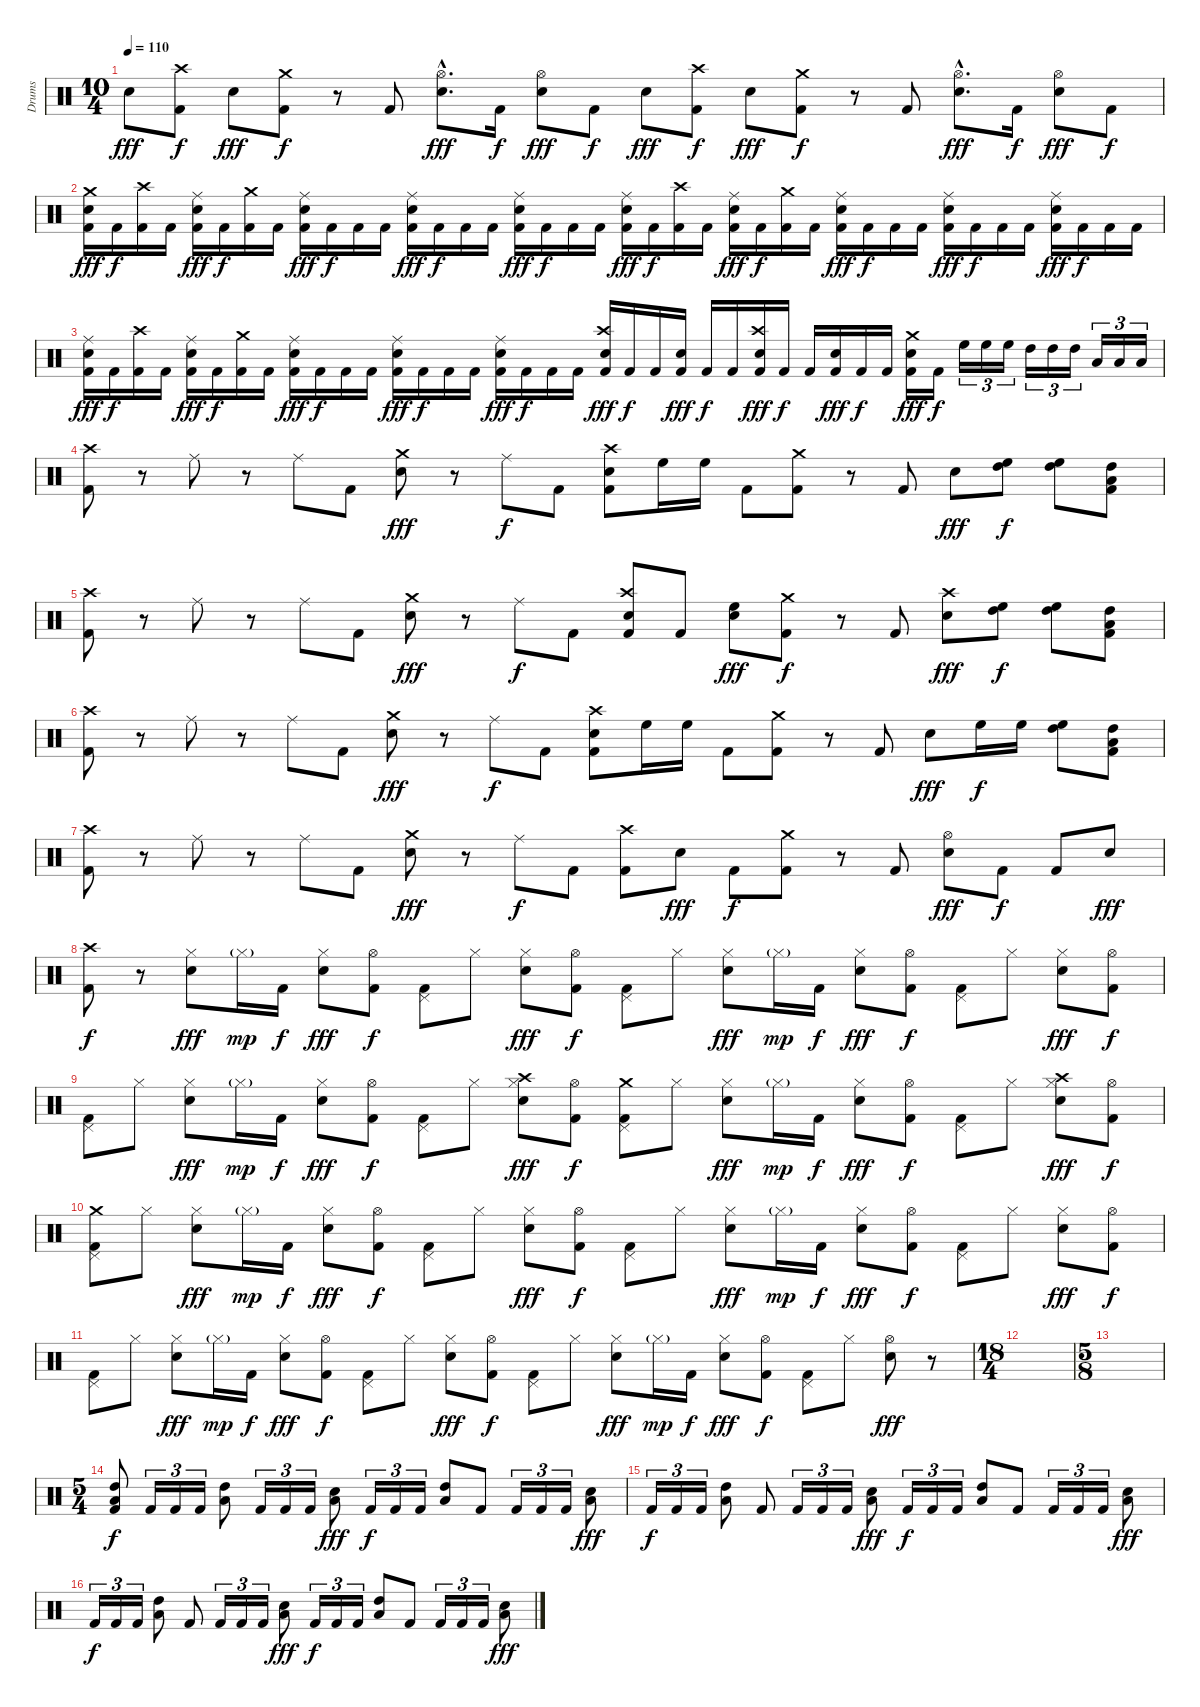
\track ("Drums" "Drums") {instrument percussion}
\staff {score}
\articulation defaults
\ts (10 4)
\tempo 110
\clef neutral
\ks c "Electric Snare (hit)".8{dy fff}
("Crash high (hit)" "Kick (hit) 2").8{dy f} "Electric Snare (hit)".8{dy fff} ("Crash medium (hit)" "Kick (hit) 2").8{dy f} r.8 "Kick (hit) 2".8 ("Hi-Hat (open)"{hac} "Electric Snare (hit)"{hac}).8{d dy fff} "Kick (hit) 2".16{dy f} ("Hi-Hat (open)" "Electric Snare (hit)").8{dy fff} "Kick (hit) 2".8{dy f} "Electric Snare (hit)".8{dy fff} ("Crash high (hit)" "Kick (hit) 2").8{dy f} "Electric Snare (hit)".8{dy fff} ("Crash medium (hit)" "Kick (hit) 2").8{dy f} r.8 "Kick (hit) 2".8 ("Hi-Hat (open)"{hac} "Electric Snare (hit)"{hac}).8{d dy fff} "Kick (hit) 2".16{dy f} ("Hi-Hat (open)" "Electric Snare (hit)").8{dy fff} "Kick (hit) 2".8{dy f} |
("Crash medium (hit)" "Electric Snare (hit)" "Kick (hit) 2").16{dy fff} "Kick (hit) 2".16{dy f} ("Crash high (hit)" "Kick (hit) 2").16 "Kick (hit) 2".16 ("Ride (middle)" "Electric Snare (hit)" "Kick (hit) 2").16{dy fff} "Kick (hit) 2".16{dy f} ("Crash medium (hit)" "Kick (hit) 2").16 "Kick (hit) 2".16 ("Ride (middle)" "Electric Snare (hit)" "Kick (hit) 2").16{dy fff} "Kick (hit) 2".16{dy f} "Kick (hit) 2".16 "Kick (hit) 2".16 ("Ride (middle)" "Electric Snare (hit)" "Kick (hit) 2").16{dy fff} "Kick (hit) 2".16{dy f} "Kick (hit) 2".16 "Kick (hit) 2".16 ("Ride (middle)" "Electric Snare (hit)" "Kick (hit) 2").16{dy fff} "Kick (hit) 2".16{dy f} "Kick (hit) 2".16 "Kick (hit) 2".16 ("Ride (middle)" "Electric Snare (hit)" "Kick (hit) 2").16{dy fff} "Kick (hit) 2".16{dy f} ("Crash high (hit)" "Kick (hit) 2").16 "Kick (hit) 2".16 ("Ride (middle)" "Electric Snare (hit)" "Kick (hit) 2").16{dy fff} "Kick (hit) 2".16{dy f} ("Crash medium (hit)" "Kick (hit) 2").16 "Kick (hit) 2".16 ("Ride (middle)" "Electric Snare (hit)" "Kick (hit) 2").16{dy fff} "Kick (hit) 2".16{dy f} "Kick (hit) 2".16 "Kick (hit) 2".16 ("Ride (middle)" "Electric Snare (hit)" "Kick (hit) 2").16{dy fff} "Kick (hit) 2".16{dy f} "Kick (hit) 2".16 "Kick (hit) 2".16 ("Ride (middle)" "Electric Snare (hit)" "Kick (hit) 2").16{dy fff} "Kick (hit) 2".16{dy f} "Kick (hit) 2".16 "Kick (hit) 2".16 |
("Ride (middle)" "Electric Snare (hit)" "Kick (hit) 2").16{dy fff} "Kick (hit) 2".16{dy f} ("Crash high (hit)" "Kick (hit) 2").16 "Kick (hit) 2".16 ("Ride (middle)" "Electric Snare (hit)" "Kick (hit) 2").16{dy fff} "Kick (hit) 2".16{dy f} ("Crash medium (hit)" "Kick (hit) 2").16 "Kick (hit) 2".16 ("Ride (middle)" "Electric Snare (hit)" "Kick (hit) 2").16{dy fff} "Kick (hit) 2".16{dy f} "Kick (hit) 2".16 "Kick (hit) 2".16 ("Ride (middle)" "Electric Snare (hit)" "Kick (hit) 2").16{dy fff} "Kick (hit) 2".16{dy f} "Kick (hit) 2".16 "Kick (hit) 2".16 ("Ride (middle)" "Electric Snare (hit)" "Kick (hit) 2").16{dy fff} "Kick (hit) 2".16{dy f} "Kick (hit) 2".16 "Kick (hit) 2".16 ("Crash high (hit)" "Electric Snare (hit)" "Kick (hit) 2").16{dy fff} "Kick (hit) 2".16{dy f} "Kick (hit) 2".16 ("Electric Snare (hit)" "Kick (hit) 2").16{dy fff} "Kick (hit) 2".16{dy f} "Kick (hit) 2".16 ("Crash high (hit)" "Electric Snare (hit)" "Kick (hit) 2").16{dy fff} "Kick (hit) 2".16{dy f} "Kick (hit) 2".16 ("Electric Snare (hit)" "Kick (hit) 2").16{dy fff} "Kick (hit) 2".16{dy f} "Kick (hit) 2".16 ("Crash medium (hit)" "Electric Snare (hit)" "Kick (hit) 2").16{dy fff} "Kick (hit) 2".16{dy f} "High Floor Tom (hit)".16{tu (3 2)} "High Floor Tom (hit)".16{tu (3 2)} "High Floor Tom (hit)".16{tu (3 2)} "High Tom (hit)".16{tu (3 2)} "High Tom (hit)".16{tu (3 2)} "High Tom (hit)".16{tu (3 2)} "Low Tom (hit)".16{tu (3 2)} "Low Tom (hit)".16{tu (3 2)} "Low Tom (hit)".16{tu (3 2)} |
("Crash high (hit)" "Kick (hit) 2").8 r.8 "Ride (middle)".8 r.8 "Ride (middle)".8 "Kick (hit) 2".8 ("Crash medium (hit)" "Electric Snare (hit)").8{dy fff} r.8 "Ride (middle)".8{dy f} "Kick (hit) 2".8 ("Crash high (hit)" "Electric Snare (hit)" "Kick (hit) 2").8 "High Floor Tom (hit)".16 "High Floor Tom (hit)".16 "Kick (hit) 2".8 ("Crash medium (hit)" "Kick (hit) 2").8 r.8 "Kick (hit) 2".8 "Electric Snare (hit)".8{dy fff} ("High Tom (hit)" "High Floor Tom (hit)").8{dy f} ("High Tom (hit)" "High Floor Tom (hit)").8 ("Low Tom (hit)" "High Tom (hit)" "Kick (hit) 2").8 |
("Crash high (hit)" "Kick (hit) 2").8 r.8 "Ride (middle)".8 r.8 "Ride (middle)".8 "Kick (hit) 2".8 ("Crash medium (hit)" "Electric Snare (hit)").8{dy fff} r.8 "Ride (middle)".8{dy f} "Kick (hit) 2".8 ("Crash high (hit)" "Electric Snare (hit)" "Kick (hit) 2").8 "Kick (hit) 2".8 ("High Floor Tom (hit)" "Electric Snare (hit)").8{dy fff} ("Crash medium (hit)" "Kick (hit) 2").8{dy f} r.8 "Kick (hit) 2".8 ("Crash high (hit)" "Electric Snare (hit)").8{dy fff} ("High Tom (hit)" "High Floor Tom (hit)").8{dy f} ("High Tom (hit)" "High Floor Tom (hit)").8 ("Low Tom (hit)" "High Tom (hit)" "Kick (hit) 2").8 |
("Crash high (hit)" "Kick (hit) 2").8 r.8 "Ride (middle)".8 r.8 "Ride (middle)".8 "Kick (hit) 2".8 ("Crash medium (hit)" "Electric Snare (hit)").8{dy fff} r.8 "Ride (middle)".8{dy f} "Kick (hit) 2".8 ("Crash high (hit)" "Electric Snare (hit)" "Kick (hit) 2").8 "High Floor Tom (hit)".16 "High Floor Tom (hit)".16 "Kick (hit) 2".8 ("Crash medium (hit)" "Kick (hit) 2").8 r.8 "Kick (hit) 2".8 "Electric Snare (hit)".8{dy fff} "High Floor Tom (hit)".16{dy f} "High Floor Tom (hit)".16 ("High Tom (hit)" "High Floor Tom (hit)").8 ("Low Tom (hit)" "High Tom (hit)" "Kick (hit) 2").8 |
("Crash high (hit)" "Kick (hit) 2").8 r.8 "Ride (middle)".8 r.8 "Ride (middle)".8 "Kick (hit) 2".8 ("Crash medium (hit)" "Electric Snare (hit)").8{dy fff} r.8 "Ride (middle)".8{dy f} "Kick (hit) 2".8 ("Crash high (hit)" "Kick (hit) 2").8 "Electric Snare (hit)".8{dy fff} "Kick (hit) 2".8{dy f} ("Crash medium (hit)" "Kick (hit) 2").8 r.8 "Kick (hit) 2".8 ("Hi-Hat (open)" "Electric Snare (hit)").8{dy fff} "Kick (hit) 2".8{dy f} "Kick (hit) 2".8 "Electric Snare (hit)".8{dy fff} |
("Crash high (hit)" "Kick (hit) 2").8{dy f} r.8 ("Hi-Hat (closed)" "Electric Snare (hit)").8{dy fff} "Hi-Hat (closed)"{g}.16{dy mp} "Kick (hit) 2".16{dy f} ("Hi-Hat (closed)" "Electric Snare (hit)").8{dy fff} ("Hi-Hat (open)" "Kick (hit) 2").8{dy f} ("Pedal Hi-Hat (hit)" "Kick (hit) 2").8 "Hi-Hat (closed)".8 ("Hi-Hat (closed)" "Electric Snare (hit)").8{dy fff} ("Hi-Hat (open)" "Kick (hit) 2").8{dy f} ("Pedal Hi-Hat (hit)" "Kick (hit) 2").8 "Hi-Hat (closed)".8 ("Hi-Hat (closed)" "Electric Snare (hit)").8{dy fff} "Hi-Hat (closed)"{g}.16{dy mp} "Kick (hit) 2".16{dy f} ("Hi-Hat (closed)" "Electric Snare (hit)").8{dy fff} ("Hi-Hat (open)" "Kick (hit) 2").8{dy f} ("Pedal Hi-Hat (hit)" "Kick (hit) 2").8 "Hi-Hat (closed)".8 ("Hi-Hat (closed)" "Electric Snare (hit)").8{dy fff} ("Hi-Hat (open)" "Kick (hit) 2").8{dy f} |
("Pedal Hi-Hat (hit)" "Kick (hit) 2").8 "Hi-Hat (closed)".8 ("Hi-Hat (closed)" "Electric Snare (hit)").8{dy fff} "Hi-Hat (closed)"{g}.16{dy mp} "Kick (hit) 2".16{dy f} ("Hi-Hat (closed)" "Electric Snare (hit)").8{dy fff} ("Hi-Hat (open)" "Kick (hit) 2").8{dy f} ("Pedal Hi-Hat (hit)" "Kick (hit) 2").8 "Hi-Hat (closed)".8 ("Hi-Hat (closed)" "Crash high (hit)" "Electric Snare (hit)").8{dy fff} ("Hi-Hat (open)" "Kick (hit) 2").8{dy f} ("Pedal Hi-Hat (hit)" "Crash medium (hit)" "Kick (hit) 2").8 "Hi-Hat (closed)".8 ("Hi-Hat (closed)" "Electric Snare (hit)").8{dy fff} "Hi-Hat (closed)"{g}.16{dy mp} "Kick (hit) 2".16{dy f} ("Hi-Hat (closed)" "Electric Snare (hit)").8{dy fff} ("Hi-Hat (open)" "Kick (hit) 2").8{dy f} ("Pedal Hi-Hat (hit)" "Kick (hit) 2").8 "Hi-Hat (closed)".8 ("Hi-Hat (closed)" "Crash high (hit)" "Electric Snare (hit)").8{dy fff} ("Hi-Hat (open)" "Kick (hit) 2").8{dy f} |
("Pedal Hi-Hat (hit)" "Crash medium (hit)" "Kick (hit) 2").8 "Hi-Hat (closed)".8 ("Hi-Hat (closed)" "Electric Snare (hit)").8{dy fff} "Hi-Hat (closed)"{g}.16{dy mp} "Kick (hit) 2".16{dy f} ("Hi-Hat (closed)" "Electric Snare (hit)").8{dy fff} ("Hi-Hat (open)" "Kick (hit) 2").8{dy f} ("Pedal Hi-Hat (hit)" "Kick (hit) 2").8 "Hi-Hat (closed)".8 ("Hi-Hat (closed)" "Electric Snare (hit)").8{dy fff} ("Hi-Hat (open)" "Kick (hit) 2").8{dy f} ("Pedal Hi-Hat (hit)" "Kick (hit) 2").8 "Hi-Hat (closed)".8 ("Hi-Hat (closed)" "Electric Snare (hit)").8{dy fff} "Hi-Hat (closed)"{g}.16{dy mp} "Kick (hit) 2".16{dy f} ("Hi-Hat (closed)" "Electric Snare (hit)").8{dy fff} ("Hi-Hat (open)" "Kick (hit) 2").8{dy f} ("Pedal Hi-Hat (hit)" "Kick (hit) 2").8 "Hi-Hat (closed)".8 ("Hi-Hat (closed)" "Electric Snare (hit)").8{dy fff} ("Hi-Hat (open)" "Kick (hit) 2").8{dy f} |
("Pedal Hi-Hat (hit)" "Kick (hit) 2").8 "Hi-Hat (closed)".8 ("Hi-Hat (closed)" "Electric Snare (hit)").8{dy fff} "Hi-Hat (closed)"{g}.16{dy mp} "Kick (hit) 2".16{dy f} ("Hi-Hat (closed)" "Electric Snare (hit)").8{dy fff} ("Hi-Hat (open)" "Kick (hit) 2").8{dy f} ("Pedal Hi-Hat (hit)" "Kick (hit) 2").8 "Hi-Hat (closed)".8 ("Hi-Hat (closed)" "Electric Snare (hit)").8{dy fff} ("Hi-Hat (open)" "Kick (hit) 2").8{dy f} ("Pedal Hi-Hat (hit)" "Kick (hit) 2").8 "Hi-Hat (closed)".8 ("Hi-Hat (closed)" "Electric Snare (hit)").8{dy fff} "Hi-Hat (closed)"{g}.16{dy mp} "Kick (hit) 2".16{dy f} ("Hi-Hat (closed)" "Electric Snare (hit)").8{dy fff} ("Hi-Hat (open)" "Kick (hit) 2").8{dy f} ("Pedal Hi-Hat (hit)" "Kick (hit) 2").8 "Hi-Hat (closed)".8 ("Hi-Hat (open)" "Electric Snare (hit)").8{dy fff} r.8 |
\ts (18 4)
|
\ts (5 8)
|
\ts (5 4)
("Low Tom (hit)" "High Tom (hit)" "Kick (hit) 2").8{dy f} "Kick (hit) 2".16{tu (3 2)} "Kick (hit) 2".16{tu (3 2)} "Kick (hit) 2".16{tu (3 2)} ("Low Tom (hit)" "High Tom (hit)").8 "Kick (hit) 2".16{tu (3 2)} "Kick (hit) 2".16{tu (3 2)} "Kick (hit) 2".16{tu (3 2)} ("Low Tom (hit)" "Electric Snare (hit)").8{dy fff} "Kick (hit) 2".16{tu (3 2) dy f} "Kick (hit) 2".16{tu (3 2)} "Kick (hit) 2".16{tu (3 2)} ("Low Tom (hit)" "High Tom (hit)").8 "Kick (hit) 2".8 "Kick (hit) 2".16{tu (3 2)} "Kick (hit) 2".16{tu (3 2)} "Kick (hit) 2".16{tu (3 2)} ("Low Tom (hit)" "Electric Snare (hit)").8{dy fff} |
"Kick (hit) 2".16{tu (3 2) dy f} "Kick (hit) 2".16{tu (3 2)} "Kick (hit) 2".16{tu (3 2)} ("Low Tom (hit)" "High Tom (hit)").8 "Kick (hit) 2".8 "Kick (hit) 2".16{tu (3 2)} "Kick (hit) 2".16{tu (3 2)} "Kick (hit) 2".16{tu (3 2)} ("Low Tom (hit)" "Electric Snare (hit)").8{dy fff} "Kick (hit) 2".16{tu (3 2) dy f} "Kick (hit) 2".16{tu (3 2)} "Kick (hit) 2".16{tu (3 2)} ("Low Tom (hit)" "High Tom (hit)").8 "Kick (hit) 2".8 "Kick (hit) 2".16{tu (3 2)} "Kick (hit) 2".16{tu (3 2)} "Kick (hit) 2".16{tu (3 2)} ("Low Tom (hit)" "Electric Snare (hit)").8{dy fff} |
"Kick (hit) 2".16{tu (3 2) dy f} "Kick (hit) 2".16{tu (3 2)} "Kick (hit) 2".16{tu (3 2)} ("Low Tom (hit)" "High Tom (hit)").8 "Kick (hit) 2".8 "Kick (hit) 2".16{tu (3 2)} "Kick (hit) 2".16{tu (3 2)} "Kick (hit) 2".16{tu (3 2)} ("Low Tom (hit)" "Electric Snare (hit)").8{dy fff} "Kick (hit) 2".16{tu (3 2) dy f} "Kick (hit) 2".16{tu (3 2)} "Kick (hit) 2".16{tu (3 2)} ("Low Tom (hit)" "High Tom (hit)").8 "Kick (hit) 2".8 "Kick (hit) 2".16{tu (3 2)} "Kick (hit) 2".16{tu (3 2)} "Kick (hit) 2".16{tu (3 2)} ("Low Tom (hit)" "Electric Snare (hit)").8{dy fff}
